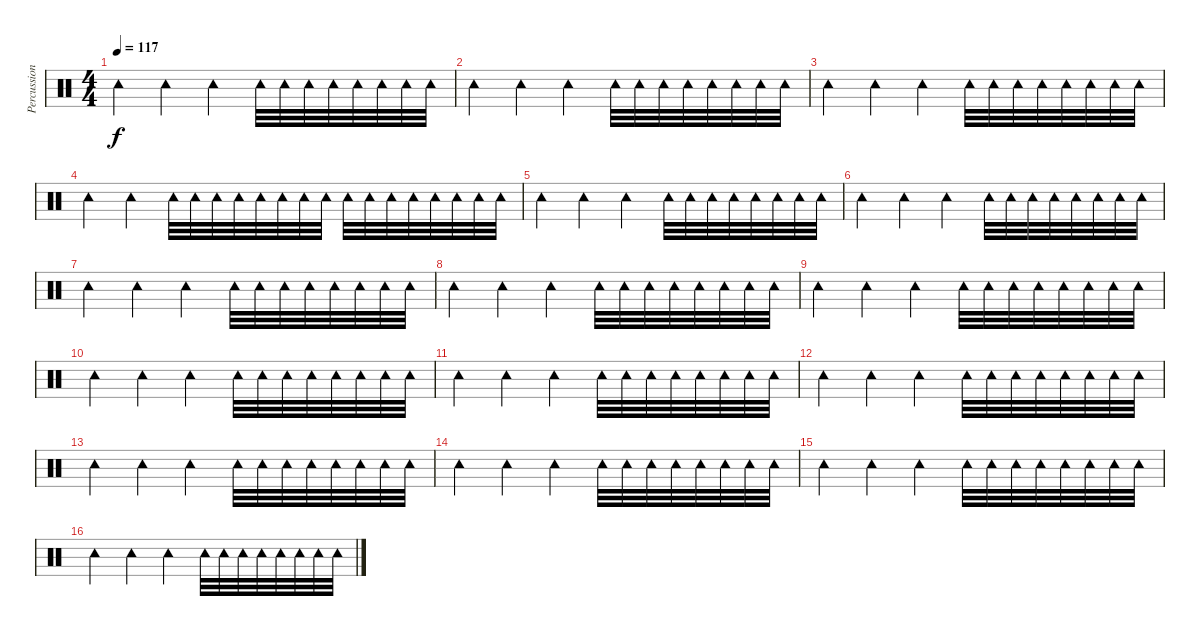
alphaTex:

\track ("Percussion" "Percussion") {instrument percussion}
\staff {score}
\articulation defaults
\ts (4 4)
\tempo 117
\clef neutral
\ks c "Tambourine (hit)".4{dy f} "Tambourine (hit)".4 "Tambourine (hit)".4 "Tambourine (hit)".32 "Tambourine (hit)".32 "Tambourine (hit)".32 "Tambourine (hit)".32 "Tambourine (hit)".32 "Tambourine (hit)".32 "Tambourine (hit)".32 "Tambourine (hit)".32
|
"Tambourine (hit)".4 "Tambourine (hit)".4 "Tambourine (hit)".4 "Tambourine (hit)".32 "Tambourine (hit)".32 "Tambourine (hit)".32 "Tambourine (hit)".32 "Tambourine (hit)".32 "Tambourine (hit)".32 "Tambourine (hit)".32 "Tambourine (hit)".32 |
"Tambourine (hit)".4 "Tambourine (hit)".4 "Tambourine (hit)".4 "Tambourine (hit)".32 "Tambourine (hit)".32 "Tambourine (hit)".32 "Tambourine (hit)".32 "Tambourine (hit)".32 "Tambourine (hit)".32 "Tambourine (hit)".32 "Tambourine (hit)".32 |
"Tambourine (hit)".4 "Tambourine (hit)".4 "Tambourine (hit)".32 "Tambourine (hit)".32 "Tambourine (hit)".32 "Tambourine (hit)".32 "Tambourine (hit)".32 "Tambourine (hit)".32 "Tambourine (hit)".32 "Tambourine (hit)".32 "Tambourine (hit)".32 "Tambourine (hit)".32 "Tambourine (hit)".32 "Tambourine (hit)".32 "Tambourine (hit)".32 "Tambourine (hit)".32 "Tambourine (hit)".32 "Tambourine (hit)".32 |
"Tambourine (hit)".4 "Tambourine (hit)".4 "Tambourine (hit)".4 "Tambourine (hit)".32 "Tambourine (hit)".32 "Tambourine (hit)".32 "Tambourine (hit)".32 "Tambourine (hit)".32 "Tambourine (hit)".32 "Tambourine (hit)".32 "Tambourine (hit)".32 |
"Tambourine (hit)".4 "Tambourine (hit)".4 "Tambourine (hit)".4 "Tambourine (hit)".32 "Tambourine (hit)".32 "Tambourine (hit)".32 "Tambourine (hit)".32 "Tambourine (hit)".32 "Tambourine (hit)".32 "Tambourine (hit)".32 "Tambourine (hit)".32 |
"Tambourine (hit)".4 "Tambourine (hit)".4 "Tambourine (hit)".4 "Tambourine (hit)".32 "Tambourine (hit)".32 "Tambourine (hit)".32 "Tambourine (hit)".32 "Tambourine (hit)".32 "Tambourine (hit)".32 "Tambourine (hit)".32 "Tambourine (hit)".32 |
"Tambourine (hit)".4 "Tambourine (hit)".4 "Tambourine (hit)".4 "Tambourine (hit)".32 "Tambourine (hit)".32 "Tambourine (hit)".32 "Tambourine (hit)".32 "Tambourine (hit)".32 "Tambourine (hit)".32 "Tambourine (hit)".32 "Tambourine (hit)".32 |
"Tambourine (hit)".4 "Tambourine (hit)".4 "Tambourine (hit)".4 "Tambourine (hit)".32 "Tambourine (hit)".32 "Tambourine (hit)".32 "Tambourine (hit)".32 "Tambourine (hit)".32 "Tambourine (hit)".32 "Tambourine (hit)".32 "Tambourine (hit)".32 |
"Tambourine (hit)".4 "Tambourine (hit)".4 "Tambourine (hit)".4 "Tambourine (hit)".32 "Tambourine (hit)".32 "Tambourine (hit)".32 "Tambourine (hit)".32 "Tambourine (hit)".32 "Tambourine (hit)".32 "Tambourine (hit)".32 "Tambourine (hit)".32 |
"Tambourine (hit)".4 "Tambourine (hit)".4 "Tambourine (hit)".4 "Tambourine (hit)".32 "Tambourine (hit)".32 "Tambourine (hit)".32 "Tambourine (hit)".32 "Tambourine (hit)".32 "Tambourine (hit)".32 "Tambourine (hit)".32 "Tambourine (hit)".32 |
"Tambourine (hit)".4 "Tambourine (hit)".4 "Tambourine (hit)".4 "Tambourine (hit)".32 "Tambourine (hit)".32 "Tambourine (hit)".32 "Tambourine (hit)".32 "Tambourine (hit)".32 "Tambourine (hit)".32 "Tambourine (hit)".32 "Tambourine (hit)".32 |
"Tambourine (hit)".4 "Tambourine (hit)".4 "Tambourine (hit)".4 "Tambourine (hit)".32 "Tambourine (hit)".32 "Tambourine (hit)".32 "Tambourine (hit)".32 "Tambourine (hit)".32 "Tambourine (hit)".32 "Tambourine (hit)".32 "Tambourine (hit)".32 |
"Tambourine (hit)".4 "Tambourine (hit)".4 "Tambourine (hit)".4 "Tambourine (hit)".32 "Tambourine (hit)".32 "Tambourine (hit)".32 "Tambourine (hit)".32 "Tambourine (hit)".32 "Tambourine (hit)".32 "Tambourine (hit)".32 "Tambourine (hit)".32 |
"Tambourine (hit)".4 "Tambourine (hit)".4 "Tambourine (hit)".4 "Tambourine (hit)".32 "Tambourine (hit)".32 "Tambourine (hit)".32 "Tambourine (hit)".32 "Tambourine (hit)".32 "Tambourine (hit)".32 "Tambourine (hit)".32 "Tambourine (hit)".32 |
"Tambourine (hit)".4 "Tambourine (hit)".4 "Tambourine (hit)".4 "Tambourine (hit)".32 "Tambourine (hit)".32 "Tambourine (hit)".32 "Tambourine (hit)".32 "Tambourine (hit)".32 "Tambourine (hit)".32 "Tambourine (hit)".32 "Tambourine (hit)".32
